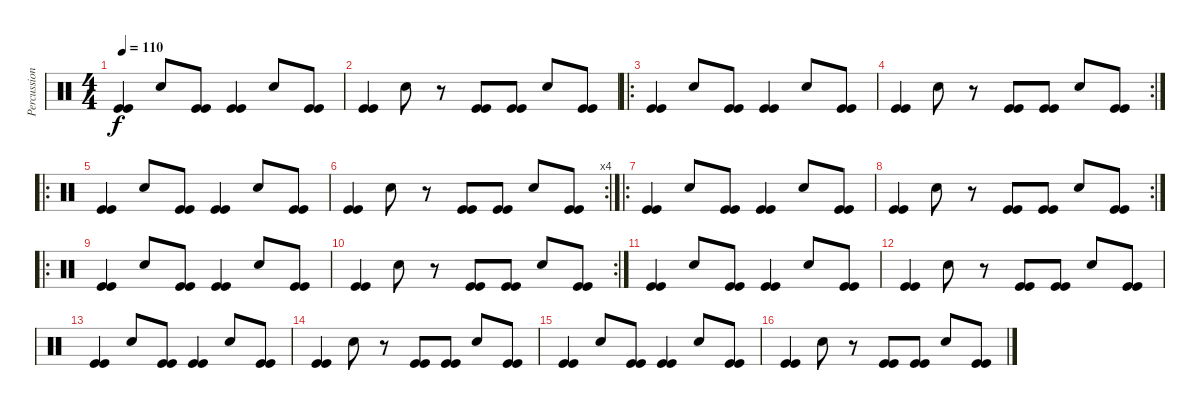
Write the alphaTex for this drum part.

\track ("Percussion" "Percussion") {instrument percussion}
\staff {score}
\articulation defaults
\ts (4 4)
\tempo 110
\clef neutral
\ks c
("Kick (hit)" "Kick (hit)").4{dy f} "Electric Snare (hit)".8 ("Kick (hit)" "Kick (hit)").8 ("Kick (hit)" "Kick (hit)").4 "Electric Snare (hit)".8 ("Kick (hit)" "Kick (hit)").8 |
("Kick (hit)" "Kick (hit)").4 "Electric Snare (hit)".8 r.8 ("Kick (hit)" "Kick (hit)").8 ("Kick (hit)" "Kick (hit)").8 "Electric Snare (hit)".8 ("Kick (hit)" "Kick (hit)").8 |
\ro
("Kick (hit)" "Kick (hit)").4 "Electric Snare (hit)".8 ("Kick (hit)" "Kick (hit)").8 ("Kick (hit)" "Kick (hit)").4 "Electric Snare (hit)".8 ("Kick (hit)" "Kick (hit)").8 |
\rc 2
("Kick (hit)" "Kick (hit)").4 "Electric Snare (hit)".8 r.8 ("Kick (hit)" "Kick (hit)").8 ("Kick (hit)" "Kick (hit)").8 "Electric Snare (hit)".8 ("Kick (hit)" "Kick (hit)").8 |
\ro
("Kick (hit)" "Kick (hit)").4 "Electric Snare (hit)".8 ("Kick (hit)" "Kick (hit)").8 ("Kick (hit)" "Kick (hit)").4 "Electric Snare (hit)".8 ("Kick (hit)" "Kick (hit)").8 |
\rc 4
("Kick (hit)" "Kick (hit)").4 "Electric Snare (hit)".8 r.8 ("Kick (hit)" "Kick (hit)").8 ("Kick (hit)" "Kick (hit)").8 "Electric Snare (hit)".8 ("Kick (hit)" "Kick (hit)").8 |
\ro
("Kick (hit)" "Kick (hit)").4 "Electric Snare (hit)".8 ("Kick (hit)" "Kick (hit)").8 ("Kick (hit)" "Kick (hit)").4 "Electric Snare (hit)".8 ("Kick (hit)" "Kick (hit)").8 |
\rc 2
("Kick (hit)" "Kick (hit)").4 "Electric Snare (hit)".8 r.8 ("Kick (hit)" "Kick (hit)").8 ("Kick (hit)" "Kick (hit)").8 "Electric Snare (hit)".8 ("Kick (hit)" "Kick (hit)").8 |
\ro
("Kick (hit)" "Kick (hit)").4 "Electric Snare (hit)".8 ("Kick (hit)" "Kick (hit)").8 ("Kick (hit)" "Kick (hit)").4 "Electric Snare (hit)".8 ("Kick (hit)" "Kick (hit)").8 |
\rc 2
("Kick (hit)" "Kick (hit)").4 "Electric Snare (hit)".8 r.8 ("Kick (hit)" "Kick (hit)").8 ("Kick (hit)" "Kick (hit)").8 "Electric Snare (hit)".8 ("Kick (hit)" "Kick (hit)").8 |
("Kick (hit)" "Kick (hit)").4 "Electric Snare (hit)".8 ("Kick (hit)" "Kick (hit)").8 ("Kick (hit)" "Kick (hit)").4 "Electric Snare (hit)".8 ("Kick (hit)" "Kick (hit)").8 |
("Kick (hit)" "Kick (hit)").4 "Electric Snare (hit)".8 r.8 ("Kick (hit)" "Kick (hit)").8 ("Kick (hit)" "Kick (hit)").8 "Electric Snare (hit)".8 ("Kick (hit)" "Kick (hit)").8 |
("Kick (hit)" "Kick (hit)").4 "Electric Snare (hit)".8 ("Kick (hit)" "Kick (hit)").8 ("Kick (hit)" "Kick (hit)").4 "Electric Snare (hit)".8 ("Kick (hit)" "Kick (hit)").8 |
("Kick (hit)" "Kick (hit)").4 "Electric Snare (hit)".8 r.8 ("Kick (hit)" "Kick (hit)").8 ("Kick (hit)" "Kick (hit)").8 "Electric Snare (hit)".8 ("Kick (hit)" "Kick (hit)").8 |
("Kick (hit)" "Kick (hit)").4 "Electric Snare (hit)".8 ("Kick (hit)" "Kick (hit)").8 ("Kick (hit)" "Kick (hit)").4 "Electric Snare (hit)".8 ("Kick (hit)" "Kick (hit)").8 |
("Kick (hit)" "Kick (hit)").4 "Electric Snare (hit)".8 r.8 ("Kick (hit)" "Kick (hit)").8 ("Kick (hit)" "Kick (hit)").8 "Electric Snare (hit)".8 ("Kick (hit)" "Kick (hit)").8
